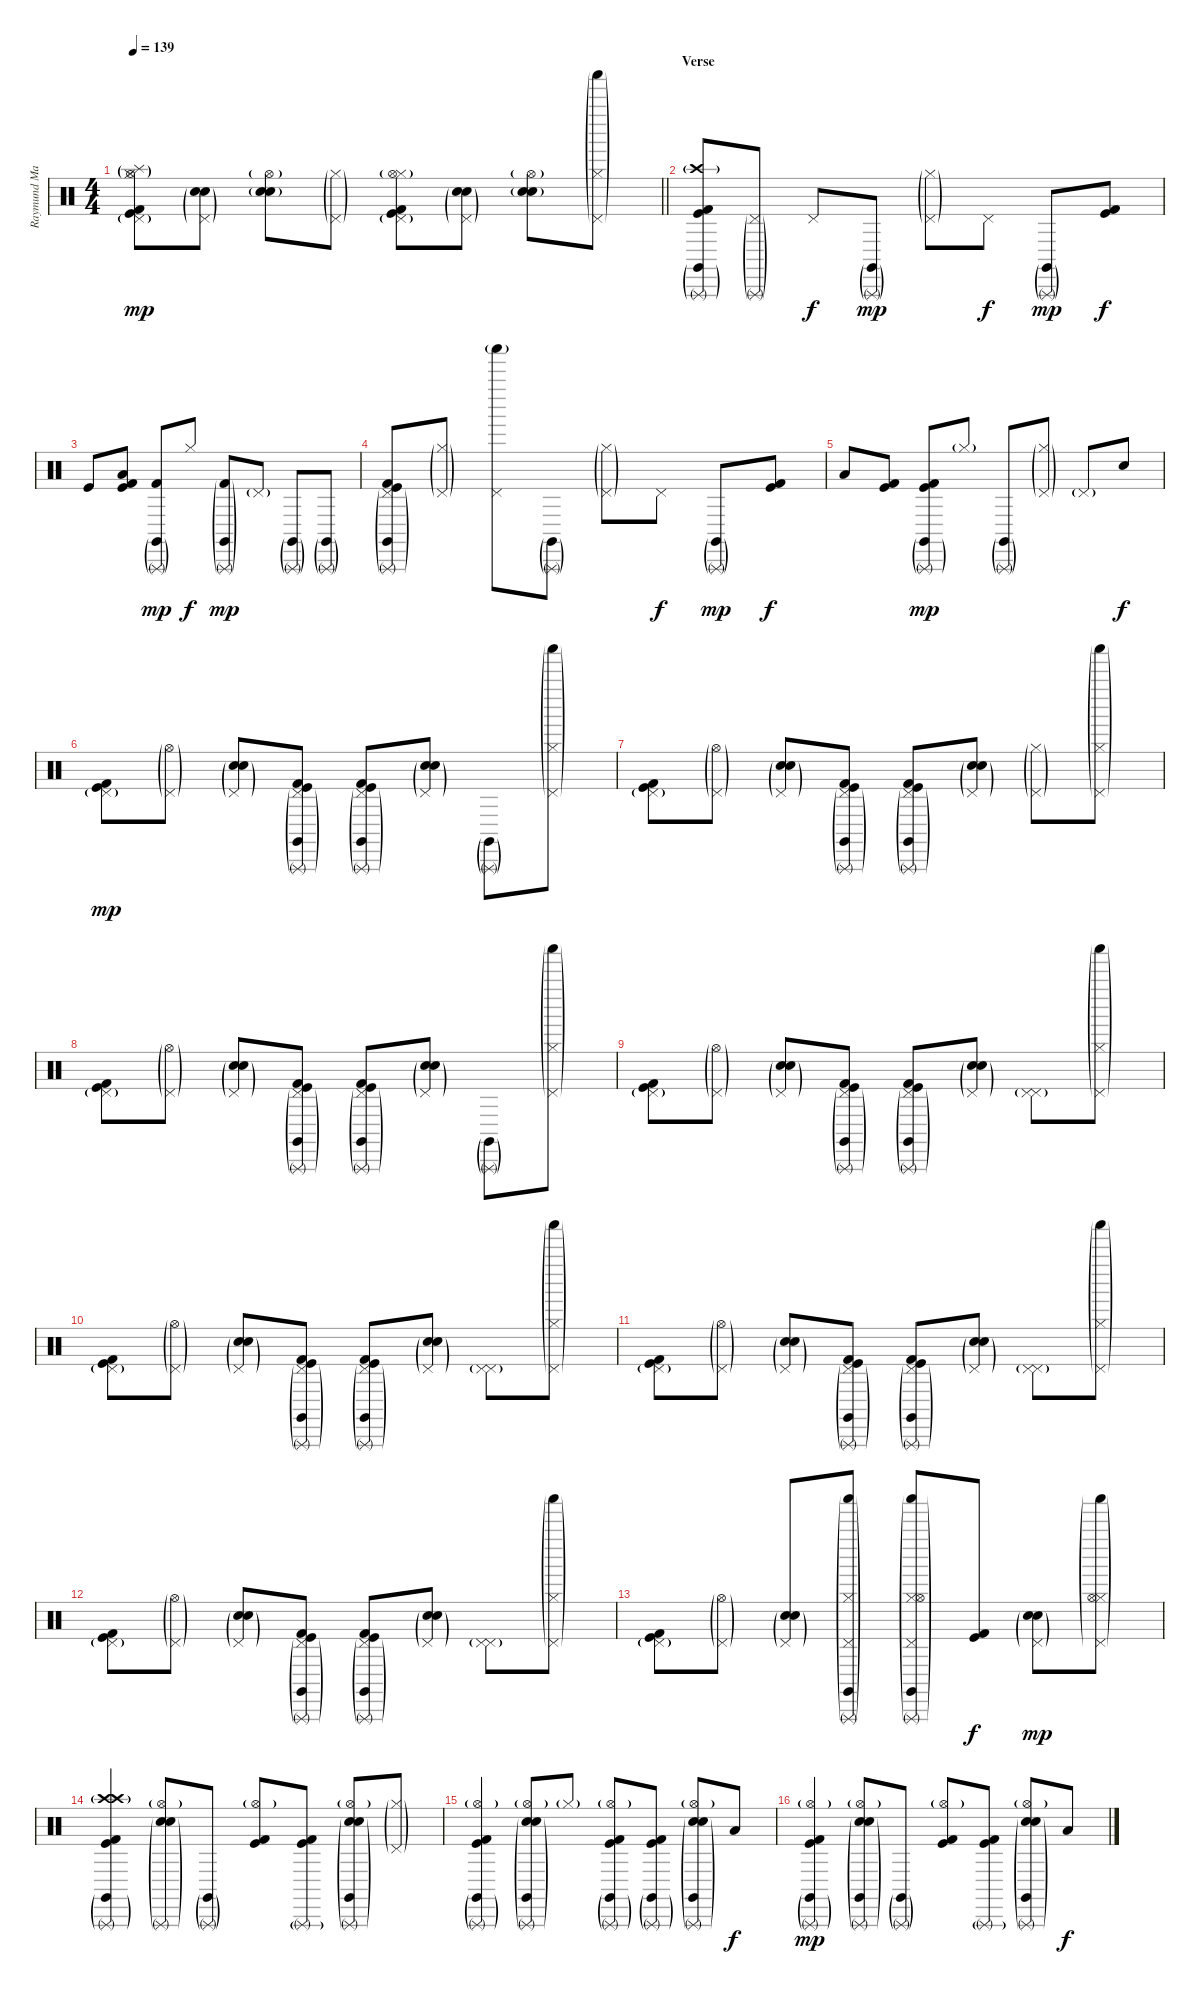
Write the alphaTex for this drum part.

\track ("Raymund Marasigan(Drums)" "Raymund Ma") {instrument percussion}
\staff {score}
\articulation defaults
\ts (4 4)
\tempo 139
\clef neutral
\barLineRight lightlight
\ks c
("Kick (hit) 2" "Kick (hit)" "Pedal Hi-Hat (hit)"{g} "Hi-Hat (closed)"{g} "Hi-Hat (open)"{g} "Splash (hit)"{g}).8{dy mp} ("Electric Snare (hit)" "Snare (hit) 2"{g} "Pedal Hi-Hat (hit)"{g}).8 ("Electric Snare (hit)" "Snare (hit) 2"{g} "Hi-Hat (open)"{g}).8 ("Pedal Hi-Hat (hit)"{g} "Hi-Hat (closed)"{g}).8 ("Kick (hit) 2" "Kick (hit)" "Pedal Hi-Hat (hit)"{g} "Hi-Hat (closed)"{g} "Hi-Hat (open)"{g}).8 ("Electric Snare (hit)" "Snare (hit) 2"{g} "Pedal Hi-Hat (hit)"{g}).8 ("Electric Snare (hit)" "Snare (hit) 2"{g} "Hi-Hat (open)"{g}).8 ("Pedal Hi-Hat (hit)"{g} "Hi-Hat (closed)"{g} "Shaker (hit)"{g}).8 |
\section ("" "Verse")
("Crash high (hit)"{g} "Kick (hit) 2" "Kick (hit)" "Triangle (rnute)"{g} "Claves (hit)"{g}).8 ("Pedal Hi-Hat (hit)"{g} "Triangle (rnute)"{g}).8 "Pedal Hi-Hat (hit)".8{dy f} ("Triangle (rnute)"{g} "Claves (hit)"{g}).8{dy mp} ("Pedal Hi-Hat (hit)"{g} "Hi-Hat (closed)"{g}).8 "Pedal Hi-Hat (hit)".8{dy f} ("Triangle (rnute)"{g} "Claves (hit)"{g}).8{dy mp} ("Kick (hit) 2" "Kick (hit)").8{dy f} |
"Kick (hit)".8 ("Low Floor Tom (hit)" "Kick (hit) 2" "Kick (hit)").8 ("Triangle (rnute)"{g} "Claves (hit)"{g} "Kick (hit) 2").8{dy mp} "Hi-Hat (closed)".8{dy f} ("Triangle (rnute)"{g} "Claves (hit)"{g} "Kick (hit) 2"{g}).8{dy mp} "Pedal Hi-Hat (hit)"{g}.8 ("Triangle (rnute)"{g} "Claves (hit)"{g}).8 ("Triangle (rnute)"{g} "Claves (hit)"{g}).8 |
("Pedal Hi-Hat (hit)"{g} "Kick (hit) 2" "Kick (hit)" "Triangle (rnute)"{g} "Claves (hit)"{g}).8 ("Pedal Hi-Hat (hit)"{g} "Hi-Hat (closed)"{g}).8 ("Pedal Hi-Hat (hit)" "Shaker (hit)"{g}).8 ("Triangle (rnute)"{g} "Claves (hit)"{g}).8 ("Pedal Hi-Hat (hit)"{g} "Hi-Hat (closed)"{g}).8 "Pedal Hi-Hat (hit)".8{dy f} ("Triangle (rnute)"{g} "Claves (hit)"{g}).8{dy mp} ("Kick (hit) 2" "Kick (hit)").8{dy f} |
"Low Floor Tom (hit)".8 ("Kick (hit) 2" "Kick (hit)").8 ("Kick (hit) 2" "Kick (hit)" "Triangle (rnute)"{g} "Claves (hit)"{g}).8{dy mp} "Hi-Hat (closed)"{g}.8 ("Triangle (rnute)"{g} "Claves (hit)"{g}).8 ("Pedal Hi-Hat (hit)"{g} "Hi-Hat (closed)"{g}).8 "Pedal Hi-Hat (hit)"{g}.8 "Electric Snare (hit)".8{dy f} |
("Pedal Hi-Hat (hit)"{g} "Kick (hit) 2" "Kick (hit)").8{dy mp} ("Pedal Hi-Hat (hit)"{g} "Hi-Hat (open)"{g}).8 ("Pedal Hi-Hat (hit)"{g} "Electric Snare (hit)" "Snare (hit) 2"{g}).8 ("Pedal Hi-Hat (hit)"{g} "Kick (hit) 2" "Kick (hit)" "Triangle (rnute)"{g} "Claves (hit)"{g}).8 ("Pedal Hi-Hat (hit)"{g} "Kick (hit) 2" "Kick (hit)" "Triangle (rnute)"{g} "Claves (hit)"{g}).8 ("Pedal Hi-Hat (hit)"{g} "Electric Snare (hit)" "Snare (hit) 2"{g}).8 ("Triangle (rnute)"{g} "Claves (hit)"{g}).8 ("Pedal Hi-Hat (hit)"{g} "Hi-Hat (closed)"{g} "Shaker (hit)"{g}).8{bd 120} |
("Pedal Hi-Hat (hit)"{g} "Kick (hit) 2" "Kick (hit)").8 ("Pedal Hi-Hat (hit)"{g} "Hi-Hat (open)"{g}).8 ("Pedal Hi-Hat (hit)"{g} "Electric Snare (hit)" "Snare (hit) 2"{g}).8 ("Pedal Hi-Hat (hit)"{g} "Kick (hit) 2" "Kick (hit)" "Triangle (rnute)"{g} "Claves (hit)"{g}).8 ("Pedal Hi-Hat (hit)"{g} "Kick (hit) 2" "Kick (hit)" "Triangle (rnute)"{g} "Claves (hit)"{g}).8 ("Pedal Hi-Hat (hit)"{g} "Electric Snare (hit)" "Snare (hit) 2"{g}).8 ("Pedal Hi-Hat (hit)"{g} "Hi-Hat (closed)"{g}).8 ("Pedal Hi-Hat (hit)"{g} "Hi-Hat (closed)"{g} "Shaker (hit)"{g}).8{bd 120} |
("Pedal Hi-Hat (hit)"{g} "Kick (hit) 2" "Kick (hit)").8 ("Pedal Hi-Hat (hit)"{g} "Hi-Hat (open)"{g}).8 ("Pedal Hi-Hat (hit)"{g} "Electric Snare (hit)" "Snare (hit) 2"{g}).8 ("Pedal Hi-Hat (hit)"{g} "Kick (hit) 2" "Kick (hit)" "Triangle (rnute)"{g} "Claves (hit)"{g}).8 ("Pedal Hi-Hat (hit)"{g} "Kick (hit) 2" "Kick (hit)" "Triangle (rnute)"{g} "Claves (hit)"{g}).8 ("Pedal Hi-Hat (hit)"{g} "Electric Snare (hit)" "Snare (hit) 2"{g}).8 ("Triangle (rnute)"{g} "Claves (hit)"{g}).8 ("Pedal Hi-Hat (hit)"{g} "Hi-Hat (closed)"{g} "Shaker (hit)"{g}).8{bd 120} |
("Pedal Hi-Hat (hit)"{g} "Kick (hit) 2" "Kick (hit)").8 ("Pedal Hi-Hat (hit)"{g} "Hi-Hat (open)"{g}).8 ("Pedal Hi-Hat (hit)"{g} "Electric Snare (hit)" "Snare (hit) 2"{g}).8 ("Pedal Hi-Hat (hit)"{g} "Kick (hit) 2" "Kick (hit)" "Triangle (rnute)"{g} "Claves (hit)"{g}).8 ("Pedal Hi-Hat (hit)"{g} "Kick (hit) 2" "Kick (hit)" "Triangle (rnute)"{g} "Claves (hit)"{g}).8 ("Pedal Hi-Hat (hit)"{g} "Electric Snare (hit)" "Snare (hit) 2"{g}).8 ("Pedal Hi-Hat (hit)"{g} "Pedal Hi-Hat (hit)"{g}).8 ("Pedal Hi-Hat (hit)"{g} "Hi-Hat (closed)"{g} "Shaker (hit)"{g}).8{bd 120} |
("Pedal Hi-Hat (hit)"{g} "Kick (hit) 2" "Kick (hit)").8 ("Pedal Hi-Hat (hit)"{g} "Hi-Hat (open)"{g}).8 ("Pedal Hi-Hat (hit)"{g} "Electric Snare (hit)" "Snare (hit) 2"{g}).8 ("Pedal Hi-Hat (hit)"{g} "Kick (hit) 2" "Kick (hit)" "Triangle (rnute)"{g} "Claves (hit)"{g}).8 ("Pedal Hi-Hat (hit)"{g} "Kick (hit) 2" "Kick (hit)" "Triangle (rnute)"{g} "Claves (hit)"{g}).8 ("Pedal Hi-Hat (hit)"{g} "Electric Snare (hit)" "Snare (hit) 2"{g}).8 ("Pedal Hi-Hat (hit)"{g} "Pedal Hi-Hat (hit)"{g}).8 ("Pedal Hi-Hat (hit)"{g} "Hi-Hat (closed)"{g} "Shaker (hit)"{g}).8{bd 120} |
("Pedal Hi-Hat (hit)"{g} "Kick (hit) 2" "Kick (hit)").8 ("Pedal Hi-Hat (hit)"{g} "Hi-Hat (open)"{g}).8 ("Pedal Hi-Hat (hit)"{g} "Electric Snare (hit)" "Snare (hit) 2"{g}).8 ("Pedal Hi-Hat (hit)"{g} "Kick (hit) 2" "Kick (hit)" "Triangle (rnute)"{g} "Claves (hit)"{g}).8 ("Pedal Hi-Hat (hit)"{g} "Kick (hit) 2" "Kick (hit)" "Triangle (rnute)"{g} "Claves (hit)"{g}).8 ("Pedal Hi-Hat (hit)"{g} "Electric Snare (hit)" "Snare (hit) 2"{g}).8 ("Pedal Hi-Hat (hit)"{g} "Pedal Hi-Hat (hit)"{g}).8 ("Pedal Hi-Hat (hit)"{g} "Hi-Hat (closed)"{g} "Shaker (hit)"{g}).8{bd 120} |
("Pedal Hi-Hat (hit)"{g} "Kick (hit) 2" "Kick (hit)").8 ("Pedal Hi-Hat (hit)"{g} "Hi-Hat (open)"{g}).8 ("Pedal Hi-Hat (hit)"{g} "Electric Snare (hit)" "Snare (hit) 2"{g}).8 ("Pedal Hi-Hat (hit)"{g} "Kick (hit) 2" "Kick (hit)" "Triangle (rnute)"{g} "Claves (hit)"{g}).8 ("Pedal Hi-Hat (hit)"{g} "Kick (hit) 2" "Kick (hit)" "Triangle (rnute)"{g} "Claves (hit)"{g}).8 ("Pedal Hi-Hat (hit)"{g} "Electric Snare (hit)" "Snare (hit) 2"{g}).8 ("Pedal Hi-Hat (hit)"{g} "Pedal Hi-Hat (hit)"{g}).8 ("Pedal Hi-Hat (hit)"{g} "Hi-Hat (closed)"{g} "Shaker (hit)"{g}).8{bd 120} |
("Pedal Hi-Hat (hit)"{g} "Kick (hit) 2" "Kick (hit)").8 ("Pedal Hi-Hat (hit)"{g} "Hi-Hat (open)"{g}).8 ("Pedal Hi-Hat (hit)"{g} "Electric Snare (hit)" "Snare (hit) 2"{g}).8 ("Pedal Hi-Hat (hit)"{g} "Hi-Hat (closed)"{g} "Shaker (hit)"{g} "Triangle (rnute)"{g} "Claves (hit)"{g}).8 ("Pedal Hi-Hat (hit)"{g} "Hi-Hat (closed)"{g} "Shaker (hit)"{g} "Triangle (rnute)"{g} "Claves (hit)"{g} "Hi-Hat (open)"{g}).8 ("Kick (hit) 2" "Kick (hit)").8{dy f} ("Electric Snare (hit)" "Snare (hit) 2"{g} "Pedal Hi-Hat (hit)"{g}).8{dy mp} ("Pedal Hi-Hat (hit)"{g} "Hi-Hat (closed)"{g} "Shaker (hit)"{g} "Hi-Hat (open)"{g}).8{bd 120} |
("Crash high (hit)"{g} "Crash high (hit)"{g} "Kick (hit) 2" "Kick (hit)" "Triangle (rnute)"{g} "Claves (hit)"{g}).4 ("Electric Snare (hit)" "Snare (hit) 2"{g} "Hi-Hat (open)"{g} "Triangle (rnute)"{g}).8 ("Triangle (rnute)"{g} "Claves (hit)"{g}).8 ("Kick (hit) 2" "Kick (hit)" "Hi-Hat (open)"{g}).8 ("Kick (hit) 2" "Kick (hit)" "Triangle (rnute)"{g}).8 ("Electric Snare (hit)" "Snare (hit) 2"{g} "Hi-Hat (open)"{g} "Triangle (rnute)"{g} "Claves (hit)"{g}).8 ("Pedal Hi-Hat (hit)"{g} "Hi-Hat (closed)"{g}).8 |
("Triangle (rnute)"{g} "Claves (hit)"{g} "Kick (hit) 2" "Kick (hit)" "Hi-Hat (open)"{g}).4 ("Electric Snare (hit)" "Snare (hit) 2"{g} "Hi-Hat (open)"{g} "Triangle (rnute)"{g} "Claves (hit)"{g}).8 "Hi-Hat (closed)"{g}.8 ("Triangle (rnute)"{g} "Claves (hit)"{g} "Kick (hit) 2" "Kick (hit)" "Hi-Hat (open)"{g}).8 ("Triangle (rnute)"{g} "Claves (hit)"{g} "Kick (hit) 2" "Kick (hit)").8 ("Electric Snare (hit)" "Snare (hit) 2"{g} "Hi-Hat (open)"{g} "Triangle (rnute)"{g} "Claves (hit)"{g}).8 "Low Tom (hit)".8{dy f} |
("Triangle (rnute)"{g} "Claves (hit)"{g} "Kick (hit) 2" "Kick (hit)" "Hi-Hat (open)"{g}).4{dy mp} ("Electric Snare (hit)" "Snare (hit) 2"{g} "Hi-Hat (open)"{g} "Triangle (rnute)"{g} "Claves (hit)"{g}).8 ("Triangle (rnute)"{g} "Claves (hit)"{g}).8 ("Kick (hit) 2" "Kick (hit)" "Hi-Hat (open)"{g}).8 ("Kick (hit) 2" "Kick (hit)" "Triangle (rnute)"{g}).8 ("Electric Snare (hit)" "Snare (hit) 2"{g} "Hi-Hat (open)"{g} "Triangle (rnute)"{g} "Claves (hit)"{g}).8 "Low Tom (hit)".8{dy f}
